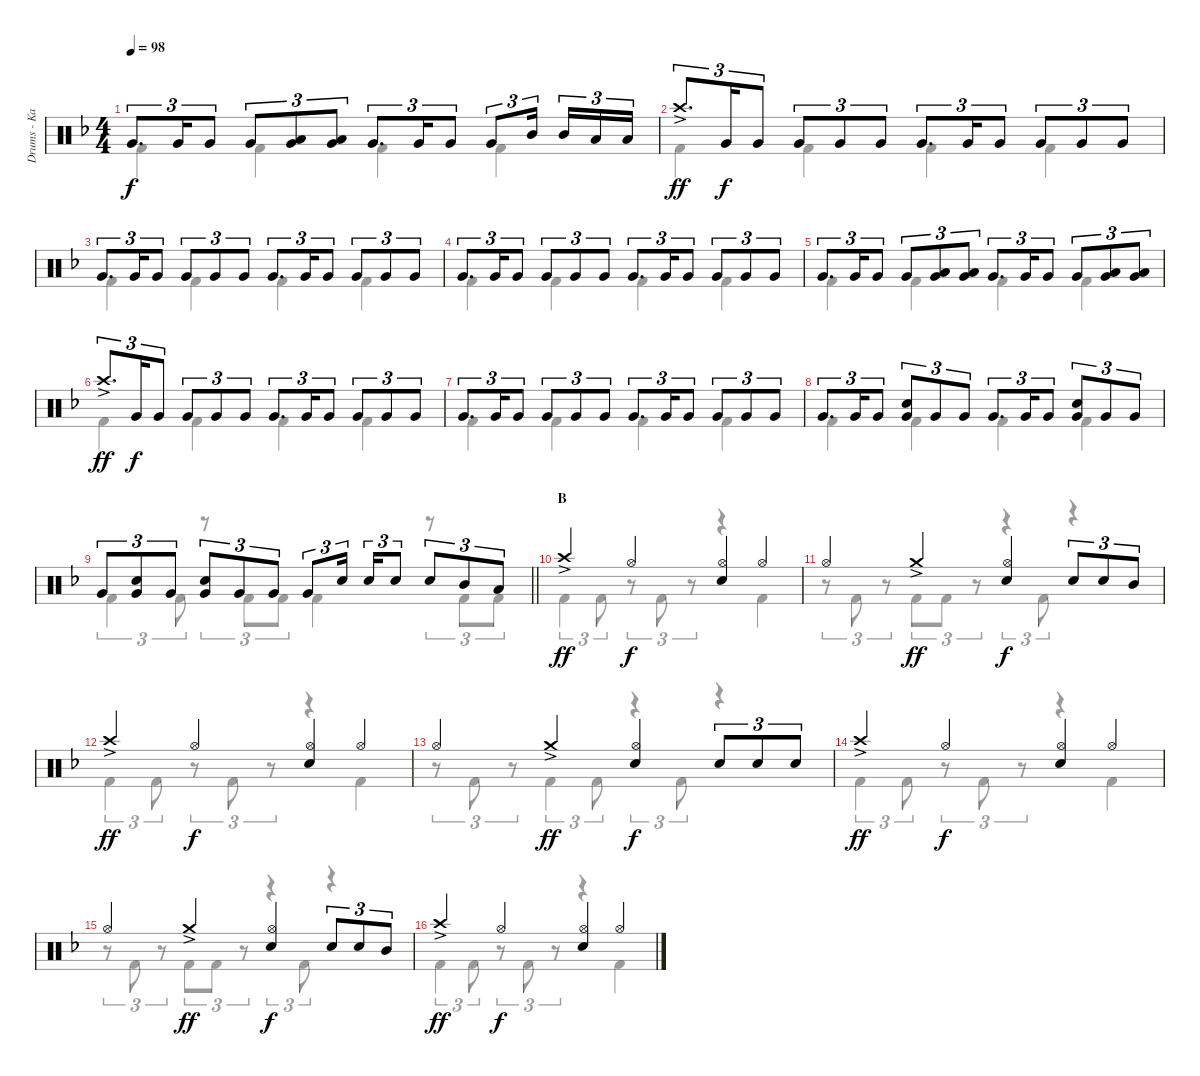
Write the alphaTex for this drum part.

\track ("Drums - Kai" "Drums - Ka") {instrument percussion}
\staff {score}
\articulation defaults
\voice
\ts (4 4)
\tempo 98
\clef neutral
\ks f "Very Low Tom (hit)".8{d tu (3 2) dy f} "Very Low Tom (hit)".16{tu (3 2)} "Very Low Tom (hit)".8{tu (3 2)} "Very Low Tom (hit)".8{tu (3 2)}
("Very Low Tom (hit)" "Low Floor Tom (hit)").8{tu (3 2)} ("Very Low Tom (hit)" "Low Floor Tom (hit)").8{tu (3 2)} "Very Low Tom (hit)".8{d tu (3 2)} "Very Low Tom (hit)".16{tu (3 2)} "Very Low Tom (hit)".8{tu (3 2)} "Very Low Tom (hit)".8{tu (3 2)} "Mid Tom (hit)".16{tu (3 2) beam splitsecondary} "Mid Tom (hit)".16{tu (3 2)} "Low Tom (hit)".16{tu (3 2)} "Low Tom (hit)".16{tu (3 2)} |
"Crash high (hit)"{ac}.8{d tu (3 2) dy ff} "Very Low Tom (hit)".16{tu (3 2) dy f} "Very Low Tom (hit)".8{tu (3 2)} "Very Low Tom (hit)".8{tu (3 2)} "Very Low Tom (hit)".8{tu (3 2)} "Very Low Tom (hit)".8{tu (3 2)} "Very Low Tom (hit)".8{d tu (3 2)} "Very Low Tom (hit)".16{tu (3 2)} "Very Low Tom (hit)".8{tu (3 2)} "Very Low Tom (hit)".8{tu (3 2)} "Very Low Tom (hit)".8{tu (3 2)} "Very Low Tom (hit)".8{tu (3 2)} |
"Very Low Tom (hit)".8{d tu (3 2)} "Very Low Tom (hit)".16{tu (3 2)} "Very Low Tom (hit)".8{tu (3 2)} "Very Low Tom (hit)".8{tu (3 2)} "Very Low Tom (hit)".8{tu (3 2)} "Very Low Tom (hit)".8{tu (3 2)} "Very Low Tom (hit)".8{d tu (3 2)} "Very Low Tom (hit)".16{tu (3 2)} "Very Low Tom (hit)".8{tu (3 2)} "Very Low Tom (hit)".8{tu (3 2)} "Very Low Tom (hit)".8{tu (3 2)} "Very Low Tom (hit)".8{tu (3 2)} |
"Very Low Tom (hit)".8{d tu (3 2)} "Very Low Tom (hit)".16{tu (3 2)} "Very Low Tom (hit)".8{tu (3 2)} "Very Low Tom (hit)".8{tu (3 2)} "Very Low Tom (hit)".8{tu (3 2)} "Very Low Tom (hit)".8{tu (3 2)} "Very Low Tom (hit)".8{d tu (3 2)} "Very Low Tom (hit)".16{tu (3 2)} "Very Low Tom (hit)".8{tu (3 2)} "Very Low Tom (hit)".8{tu (3 2)} "Very Low Tom (hit)".8{tu (3 2)} "Very Low Tom (hit)".8{tu (3 2)} |
"Very Low Tom (hit)".8{d tu (3 2)} "Very Low Tom (hit)".16{tu (3 2)} "Very Low Tom (hit)".8{tu (3 2)} "Very Low Tom (hit)".8{tu (3 2)} ("Very Low Tom (hit)" "Low Floor Tom (hit)").8{tu (3 2)} ("Very Low Tom (hit)" "Low Floor Tom (hit)").8{tu (3 2)} "Very Low Tom (hit)".8{d tu (3 2)} "Very Low Tom (hit)".16{tu (3 2)} "Very Low Tom (hit)".8{tu (3 2)} "Very Low Tom (hit)".8{tu (3 2)} ("Very Low Tom (hit)" "Low Floor Tom (hit)").8{tu (3 2)} ("Very Low Tom (hit)" "Low Floor Tom (hit)").8{tu (3 2)} |
"Crash high (hit)"{ac}.8{d tu (3 2) dy ff} "Very Low Tom (hit)".16{tu (3 2) dy f} "Very Low Tom (hit)".8{tu (3 2)} "Very Low Tom (hit)".8{tu (3 2)} "Very Low Tom (hit)".8{tu (3 2)} "Very Low Tom (hit)".8{tu (3 2)} "Very Low Tom (hit)".8{d tu (3 2)} "Very Low Tom (hit)".16{tu (3 2)} "Very Low Tom (hit)".8{tu (3 2)} "Very Low Tom (hit)".8{tu (3 2)} "Very Low Tom (hit)".8{tu (3 2)} "Very Low Tom (hit)".8{tu (3 2)} |
"Very Low Tom (hit)".8{d tu (3 2)} "Very Low Tom (hit)".16{tu (3 2)} "Very Low Tom (hit)".8{tu (3 2)} "Very Low Tom (hit)".8{tu (3 2)} "Very Low Tom (hit)".8{tu (3 2)} "Very Low Tom (hit)".8{tu (3 2)} "Very Low Tom (hit)".8{d tu (3 2)} "Very Low Tom (hit)".16{tu (3 2)} "Very Low Tom (hit)".8{tu (3 2)} "Very Low Tom (hit)".8{tu (3 2)} "Very Low Tom (hit)".8{tu (3 2)} "Very Low Tom (hit)".8{tu (3 2)} |
"Very Low Tom (hit)".8{d tu (3 2)} "Very Low Tom (hit)".16{tu (3 2)} "Very Low Tom (hit)".8{tu (3 2)} ("Very Low Tom (hit)" "Snare (hit) 2").8{tu (3 2)} "Very Low Tom (hit)".8{tu (3 2)} "Very Low Tom (hit)".8{tu (3 2)} "Very Low Tom (hit)".8{d tu (3 2)} "Very Low Tom (hit)".16{tu (3 2)} "Very Low Tom (hit)".8{tu (3 2)} ("Very Low Tom (hit)" "Snare (hit) 2").8{tu (3 2)} "Very Low Tom (hit)".8{tu (3 2)} "Very Low Tom (hit)".8{tu (3 2)} |
\barLineRight lightlight "Very Low Tom (hit)".8{tu (3 2)}
("Very Low Tom (hit)" "Snare (hit) 2").8{tu (3 2)} "Very Low Tom (hit)".8{tu (3 2)} ("Very Low Tom (hit)" "Snare (hit) 2").8{tu (3 2)} "Very Low Tom (hit)".8{tu (3 2)} "Very Low Tom (hit)".8{tu (3 2)} "Very Low Tom (hit)".8{tu (3 2)} "Snare (hit) 2".16{tu (3 2) beam splitsecondary} "Snare (hit) 2".16{tu (3 2)} "Snare (hit) 2".8{tu (3 2)} "Snare (hit) 2".8{tu (3 2)} "Mid Tom (hit)".8{tu (3 2)} "Low Tom (hit)".8{tu (3 2)} |
\section ("" "B")
"Crash high (hit)"{ac}.4{dy ff} "Hi-Hat (open)".4{dy f} ("Hi-Hat (open)" "Snare (hit) 2").4 "Hi-Hat (open)".4 |
"Hi-Hat (open)".4 "Crash medium (hit)"{ac}.4{dy ff} ("Hi-Hat (open)" "Snare (hit) 2").4{dy f} "Snare (hit) 2".8{tu (3 2)} "Snare (hit) 2".8{tu (3 2)} "Mid Tom (hit)".8{tu (3 2)} |
"Crash high (hit)"{ac}.4{dy ff} "Hi-Hat (open)".4{dy f} ("Hi-Hat (open)" "Snare (hit) 2").4 "Hi-Hat (open)".4 |
"Hi-Hat (open)".4 "Crash medium (hit)"{ac}.4{dy ff} ("Hi-Hat (open)" "Snare (hit) 2").4{dy f} "Snare (hit) 2".8{tu (3 2)} "Snare (hit) 2".8{tu (3 2)} "Snare (hit) 2".8{tu (3 2)} |
"Crash high (hit)"{ac}.4{dy ff} "Hi-Hat (open)".4{dy f} ("Hi-Hat (open)" "Snare (hit) 2").4 "Hi-Hat (open)".4 |
"Hi-Hat (open)".4 "Crash medium (hit)"{ac}.4{dy ff} ("Hi-Hat (open)" "Snare (hit) 2").4{dy f} "Snare (hit) 2".8{tu (3 2)} "Snare (hit) 2".8{tu (3 2)} "Mid Tom (hit)".8{tu (3 2)} |
"Crash high (hit)"{ac}.4{dy ff} "Hi-Hat (open)".4{dy f} ("Hi-Hat (open)" "Snare (hit) 2").4 "Hi-Hat (open)".4
\voice
\clef neutral
\ottava regular
\simile none
\ks f "Kick (hit) 2".4{dy f} "Kick (hit) 2".4 "Kick (hit) 2".4 "Kick (hit) 2".4
|
"Kick (hit) 2".4 "Kick (hit) 2".4 "Kick (hit) 2".4 "Kick (hit) 2".4 |
"Kick (hit) 2".4 "Kick (hit) 2".4 "Kick (hit) 2".4 "Kick (hit) 2".4 |
"Kick (hit) 2".4 "Kick (hit) 2".4 "Kick (hit) 2".4 "Kick (hit) 2".4 |
"Kick (hit) 2".4 "Kick (hit) 2".4 "Kick (hit) 2".4 "Kick (hit) 2".4 |
"Kick (hit) 2".4 "Kick (hit) 2".4 "Kick (hit) 2".4 "Kick (hit) 2".4 |
"Kick (hit) 2".4 "Kick (hit) 2".4 "Kick (hit) 2".4 "Kick (hit) 2".4 |
"Kick (hit) 2".4 "Kick (hit) 2".4 "Kick (hit) 2".4 "Kick (hit) 2".4 |
\barLineRight lightlight "Kick (hit) 2".4{tu (3 2)} "Kick (hit) 2".8{tu (3 2)}
r.8{tu (3 2)} "Kick (hit) 2".8{tu (3 2)} "Kick (hit) 2".8{tu (3 2)} "Kick (hit) 2".4 r.8{tu (3 2)} "Kick (hit) 2".8{tu (3 2)} "Kick (hit) 2".8{tu (3 2)} |
"Kick (hit) 2".4{tu (3 2)} "Kick (hit) 2".8{tu (3 2)} r.8{tu (3 2)} "Kick (hit) 2".8{tu (3 2)} r.8{tu (3 2)} r.4 "Kick (hit) 2".4 |
r.8{tu (3 2)} "Kick (hit) 2".8{tu (3 2)} r.8{tu (3 2)} "Kick (hit) 2".8{tu (3 2)} "Kick (hit) 2".8{tu (3 2)} r.8{tu (3 2)} r.4{tu (3 2)} "Kick (hit) 2".8{tu (3 2)} r.4 |
"Kick (hit) 2".4{tu (3 2)} "Kick (hit) 2".8{tu (3 2)} r.8{tu (3 2)} "Kick (hit) 2".8{tu (3 2)} r.8{tu (3 2)} r.4 "Kick (hit) 2".4 |
r.8{tu (3 2)} "Kick (hit) 2".8{tu (3 2)} r.8{tu (3 2)} "Kick (hit) 2".4{tu (3 2)} "Kick (hit) 2".8{tu (3 2)} r.4{tu (3 2)} "Kick (hit) 2".8{tu (3 2)} r.4 |
"Kick (hit) 2".4{tu (3 2)} "Kick (hit) 2".8{tu (3 2)} r.8{tu (3 2)} "Kick (hit) 2".8{tu (3 2)} r.8{tu (3 2)} r.4 "Kick (hit) 2".4 |
r.8{tu (3 2)} "Kick (hit) 2".8{tu (3 2)} r.8{tu (3 2)} "Kick (hit) 2".8{tu (3 2)} "Kick (hit) 2".8{tu (3 2)} r.8{tu (3 2)} r.4{tu (3 2)} "Kick (hit) 2".8{tu (3 2)} r.4 |
"Kick (hit) 2".4{tu (3 2)} "Kick (hit) 2".8{tu (3 2)} r.8{tu (3 2)} "Kick (hit) 2".8{tu (3 2)} r.8{tu (3 2)} r.4 "Kick (hit) 2".4
